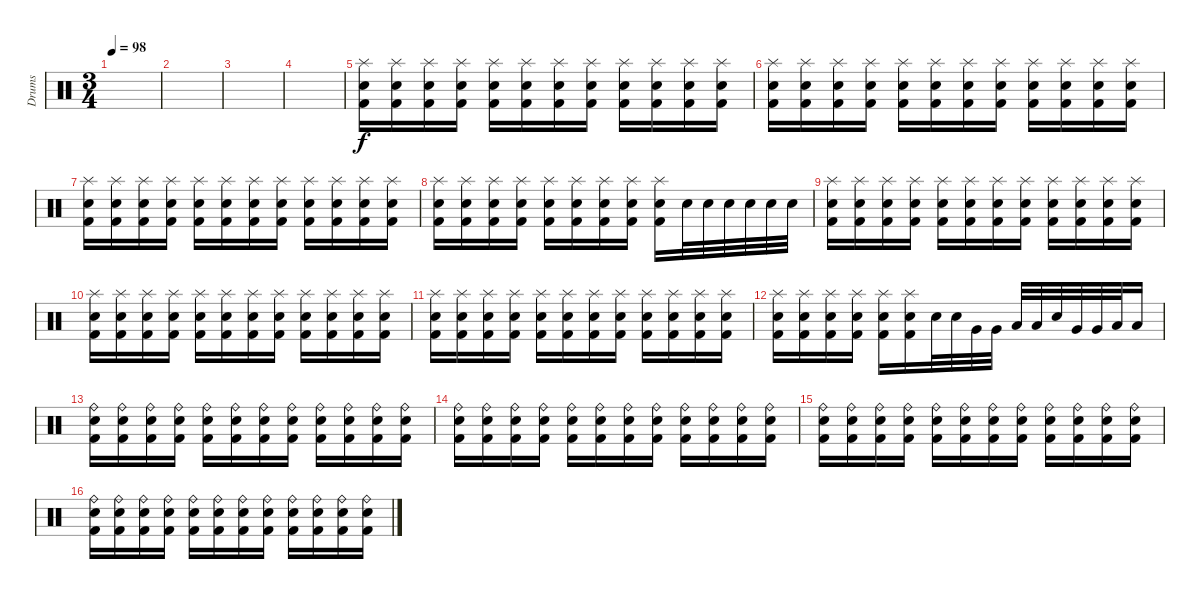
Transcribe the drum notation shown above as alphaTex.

\track ("Drums" "Drums") {instrument percussion}
\staff {score}
\articulation defaults
\ts (3 4)
\tempo 98
\clef neutral
\ks c
|
|
|
|
("Splash (hit)" "Electric Snare (hit)" "Kick (hit) 2").16 ("Splash (hit)" "Electric Snare (hit)" "Kick (hit) 2").16 ("Splash (hit)" "Electric Snare (hit)" "Kick (hit) 2").16 ("Splash (hit)" "Electric Snare (hit)" "Kick (hit) 2").16 ("Splash (hit)" "Electric Snare (hit)" "Kick (hit) 2").16 ("Splash (hit)" "Electric Snare (hit)" "Kick (hit) 2").16 ("Splash (hit)" "Electric Snare (hit)" "Kick (hit) 2").16 ("Splash (hit)" "Electric Snare (hit)" "Kick (hit) 2").16 ("Splash (hit)" "Electric Snare (hit)" "Kick (hit) 2").16 ("Splash (hit)" "Electric Snare (hit)" "Kick (hit) 2").16 ("Splash (hit)" "Electric Snare (hit)" "Kick (hit) 2").16 ("Splash (hit)" "Electric Snare (hit)" "Kick (hit) 2").16 |
("Splash (hit)" "Electric Snare (hit)" "Kick (hit) 2").16 ("Splash (hit)" "Electric Snare (hit)" "Kick (hit) 2").16 ("Splash (hit)" "Electric Snare (hit)" "Kick (hit) 2").16 ("Splash (hit)" "Electric Snare (hit)" "Kick (hit) 2").16 ("Splash (hit)" "Electric Snare (hit)" "Kick (hit) 2").16 ("Splash (hit)" "Electric Snare (hit)" "Kick (hit) 2").16 ("Splash (hit)" "Electric Snare (hit)" "Kick (hit) 2").16 ("Splash (hit)" "Electric Snare (hit)" "Kick (hit) 2").16 ("Splash (hit)" "Electric Snare (hit)" "Kick (hit) 2").16 ("Splash (hit)" "Electric Snare (hit)" "Kick (hit) 2").16 ("Splash (hit)" "Electric Snare (hit)" "Kick (hit) 2").16 ("Splash (hit)" "Electric Snare (hit)" "Kick (hit) 2").16 |
("Splash (hit)" "Electric Snare (hit)" "Kick (hit) 2").16 ("Splash (hit)" "Electric Snare (hit)" "Kick (hit) 2").16 ("Splash (hit)" "Electric Snare (hit)" "Kick (hit) 2").16 ("Splash (hit)" "Electric Snare (hit)" "Kick (hit) 2").16 ("Splash (hit)" "Electric Snare (hit)" "Kick (hit) 2").16 ("Splash (hit)" "Electric Snare (hit)" "Kick (hit) 2").16 ("Splash (hit)" "Electric Snare (hit)" "Kick (hit) 2").16 ("Splash (hit)" "Electric Snare (hit)" "Kick (hit) 2").16 ("Splash (hit)" "Electric Snare (hit)" "Kick (hit) 2").16 ("Splash (hit)" "Electric Snare (hit)" "Kick (hit) 2").16 ("Splash (hit)" "Electric Snare (hit)" "Kick (hit) 2").16 ("Splash (hit)" "Electric Snare (hit)" "Kick (hit) 2").16 |
("Splash (hit)" "Electric Snare (hit)" "Kick (hit) 2").16 ("Splash (hit)" "Electric Snare (hit)" "Kick (hit) 2").16 ("Splash (hit)" "Electric Snare (hit)" "Kick (hit) 2").16 ("Splash (hit)" "Electric Snare (hit)" "Kick (hit) 2").16 ("Splash (hit)" "Electric Snare (hit)" "Kick (hit) 2").16 ("Splash (hit)" "Electric Snare (hit)" "Kick (hit) 2").16 ("Splash (hit)" "Electric Snare (hit)" "Kick (hit) 2").16 ("Splash (hit)" "Electric Snare (hit)" "Kick (hit) 2").16 ("Splash (hit)" "Electric Snare (hit)" "Kick (hit) 2").16 "Electric Snare (hit)".32 "Electric Snare (hit)".32 "Electric Snare (hit)".32 "Electric Snare (hit)".32 "Electric Snare (hit)".32 "Electric Snare (hit)".32 |
("Splash (hit)" "Electric Snare (hit)" "Kick (hit) 2").16 ("Splash (hit)" "Electric Snare (hit)" "Kick (hit) 2").16 ("Splash (hit)" "Electric Snare (hit)" "Kick (hit) 2").16 ("Splash (hit)" "Electric Snare (hit)" "Kick (hit) 2").16 ("Splash (hit)" "Electric Snare (hit)" "Kick (hit) 2").16 ("Splash (hit)" "Electric Snare (hit)" "Kick (hit) 2").16 ("Splash (hit)" "Electric Snare (hit)" "Kick (hit) 2").16 ("Splash (hit)" "Electric Snare (hit)" "Kick (hit) 2").16 ("Splash (hit)" "Electric Snare (hit)" "Kick (hit) 2").16 ("Splash (hit)" "Electric Snare (hit)" "Kick (hit) 2").16 ("Splash (hit)" "Electric Snare (hit)" "Kick (hit) 2").16 ("Splash (hit)" "Electric Snare (hit)" "Kick (hit) 2").16 |
("Splash (hit)" "Electric Snare (hit)" "Kick (hit) 2").16 ("Splash (hit)" "Electric Snare (hit)" "Kick (hit) 2").16 ("Splash (hit)" "Electric Snare (hit)" "Kick (hit) 2").16 ("Splash (hit)" "Electric Snare (hit)" "Kick (hit) 2").16 ("Splash (hit)" "Electric Snare (hit)" "Kick (hit) 2").16 ("Splash (hit)" "Electric Snare (hit)" "Kick (hit) 2").16 ("Splash (hit)" "Electric Snare (hit)" "Kick (hit) 2").16 ("Splash (hit)" "Electric Snare (hit)" "Kick (hit) 2").16 ("Splash (hit)" "Electric Snare (hit)" "Kick (hit) 2").16 ("Splash (hit)" "Electric Snare (hit)" "Kick (hit) 2").16 ("Splash (hit)" "Electric Snare (hit)" "Kick (hit) 2").16 ("Splash (hit)" "Electric Snare (hit)" "Kick (hit) 2").16 |
("Splash (hit)" "Electric Snare (hit)" "Kick (hit) 2").16 ("Splash (hit)" "Electric Snare (hit)" "Kick (hit) 2").16 ("Splash (hit)" "Electric Snare (hit)" "Kick (hit) 2").16 ("Splash (hit)" "Electric Snare (hit)" "Kick (hit) 2").16 ("Splash (hit)" "Electric Snare (hit)" "Kick (hit) 2").16 ("Splash (hit)" "Electric Snare (hit)" "Kick (hit) 2").16 ("Splash (hit)" "Electric Snare (hit)" "Kick (hit) 2").16 ("Splash (hit)" "Electric Snare (hit)" "Kick (hit) 2").16 ("Splash (hit)" "Electric Snare (hit)" "Kick (hit) 2").16 ("Splash (hit)" "Electric Snare (hit)" "Kick (hit) 2").16 ("Splash (hit)" "Electric Snare (hit)" "Kick (hit) 2").16 ("Splash (hit)" "Electric Snare (hit)" "Kick (hit) 2").16 |
("Splash (hit)" "Electric Snare (hit)" "Kick (hit) 2").16 ("Splash (hit)" "Electric Snare (hit)" "Kick (hit) 2").16 ("Splash (hit)" "Electric Snare (hit)" "Kick (hit) 2").16 ("Splash (hit)" "Electric Snare (hit)" "Kick (hit) 2").16 ("Splash (hit)" "Electric Snare (hit)" "Kick (hit) 2").16 ("Splash (hit)" "Electric Snare (hit)" "Kick (hit) 2").16 "Electric Snare (hit)".32 "Electric Snare (hit)".32 "Very Low Tom (hit)".32 "Very Low Tom (hit)".32 "Low Floor Tom (hit)".32 "Low Floor Tom (hit)".32 "Electric Snare (hit)".32 "Very Low Tom (hit)".32 "Very Low Tom (hit)".32 "Low Floor Tom (hit)".32 "Low Floor Tom (hit)".16 |
("Ride (bell)" "Electric Snare (hit)" "Kick (hit) 2").16 ("Ride (bell)" "Electric Snare (hit)" "Kick (hit) 2").16 ("Ride (bell)" "Electric Snare (hit)" "Kick (hit) 2").16 ("Ride (bell)" "Electric Snare (hit)" "Kick (hit) 2").16 ("Ride (bell)" "Electric Snare (hit)" "Kick (hit) 2").16 ("Ride (bell)" "Electric Snare (hit)" "Kick (hit) 2").16 ("Ride (bell)" "Electric Snare (hit)" "Kick (hit) 2").16 ("Ride (bell)" "Electric Snare (hit)" "Kick (hit) 2").16 ("Ride (bell)" "Electric Snare (hit)" "Kick (hit) 2").16 ("Ride (bell)" "Electric Snare (hit)" "Kick (hit) 2").16 ("Ride (bell)" "Electric Snare (hit)" "Kick (hit) 2").16 ("Ride (bell)" "Electric Snare (hit)" "Kick (hit) 2").16 |
("Ride (bell)" "Electric Snare (hit)" "Kick (hit) 2").16 ("Ride (bell)" "Electric Snare (hit)" "Kick (hit) 2").16 ("Ride (bell)" "Electric Snare (hit)" "Kick (hit) 2").16 ("Ride (bell)" "Electric Snare (hit)" "Kick (hit) 2").16 ("Ride (bell)" "Electric Snare (hit)" "Kick (hit) 2").16 ("Ride (bell)" "Electric Snare (hit)" "Kick (hit) 2").16 ("Ride (bell)" "Electric Snare (hit)" "Kick (hit) 2").16 ("Ride (bell)" "Electric Snare (hit)" "Kick (hit) 2").16 ("Ride (bell)" "Electric Snare (hit)" "Kick (hit) 2").16 ("Ride (bell)" "Electric Snare (hit)" "Kick (hit) 2").16 ("Ride (bell)" "Electric Snare (hit)" "Kick (hit) 2").16 ("Ride (bell)" "Electric Snare (hit)" "Kick (hit) 2").16 |
("Ride (bell)" "Electric Snare (hit)" "Kick (hit) 2").16 ("Ride (bell)" "Electric Snare (hit)" "Kick (hit) 2").16 ("Ride (bell)" "Electric Snare (hit)" "Kick (hit) 2").16 ("Ride (bell)" "Electric Snare (hit)" "Kick (hit) 2").16 ("Ride (bell)" "Electric Snare (hit)" "Kick (hit) 2").16 ("Ride (bell)" "Electric Snare (hit)" "Kick (hit) 2").16 ("Ride (bell)" "Electric Snare (hit)" "Kick (hit) 2").16 ("Ride (bell)" "Electric Snare (hit)" "Kick (hit) 2").16 ("Ride (bell)" "Electric Snare (hit)" "Kick (hit) 2").16 ("Ride (bell)" "Electric Snare (hit)" "Kick (hit) 2").16 ("Ride (bell)" "Electric Snare (hit)" "Kick (hit) 2").16 ("Ride (bell)" "Electric Snare (hit)" "Kick (hit) 2").16 |
("Ride (bell)" "Electric Snare (hit)" "Kick (hit) 2").16 ("Ride (bell)" "Electric Snare (hit)" "Kick (hit) 2").16 ("Ride (bell)" "Electric Snare (hit)" "Kick (hit) 2").16 ("Ride (bell)" "Electric Snare (hit)" "Kick (hit) 2").16 ("Ride (bell)" "Electric Snare (hit)" "Kick (hit) 2").16 ("Ride (bell)" "Electric Snare (hit)" "Kick (hit) 2").16 ("Ride (bell)" "Electric Snare (hit)" "Kick (hit) 2").16 ("Ride (bell)" "Electric Snare (hit)" "Kick (hit) 2").16 ("Ride (bell)" "Electric Snare (hit)" "Kick (hit) 2").16 ("Ride (bell)" "Electric Snare (hit)" "Kick (hit) 2").16 ("Ride (bell)" "Electric Snare (hit)" "Kick (hit) 2").16 ("Ride (bell)" "Electric Snare (hit)" "Kick (hit) 2").16
